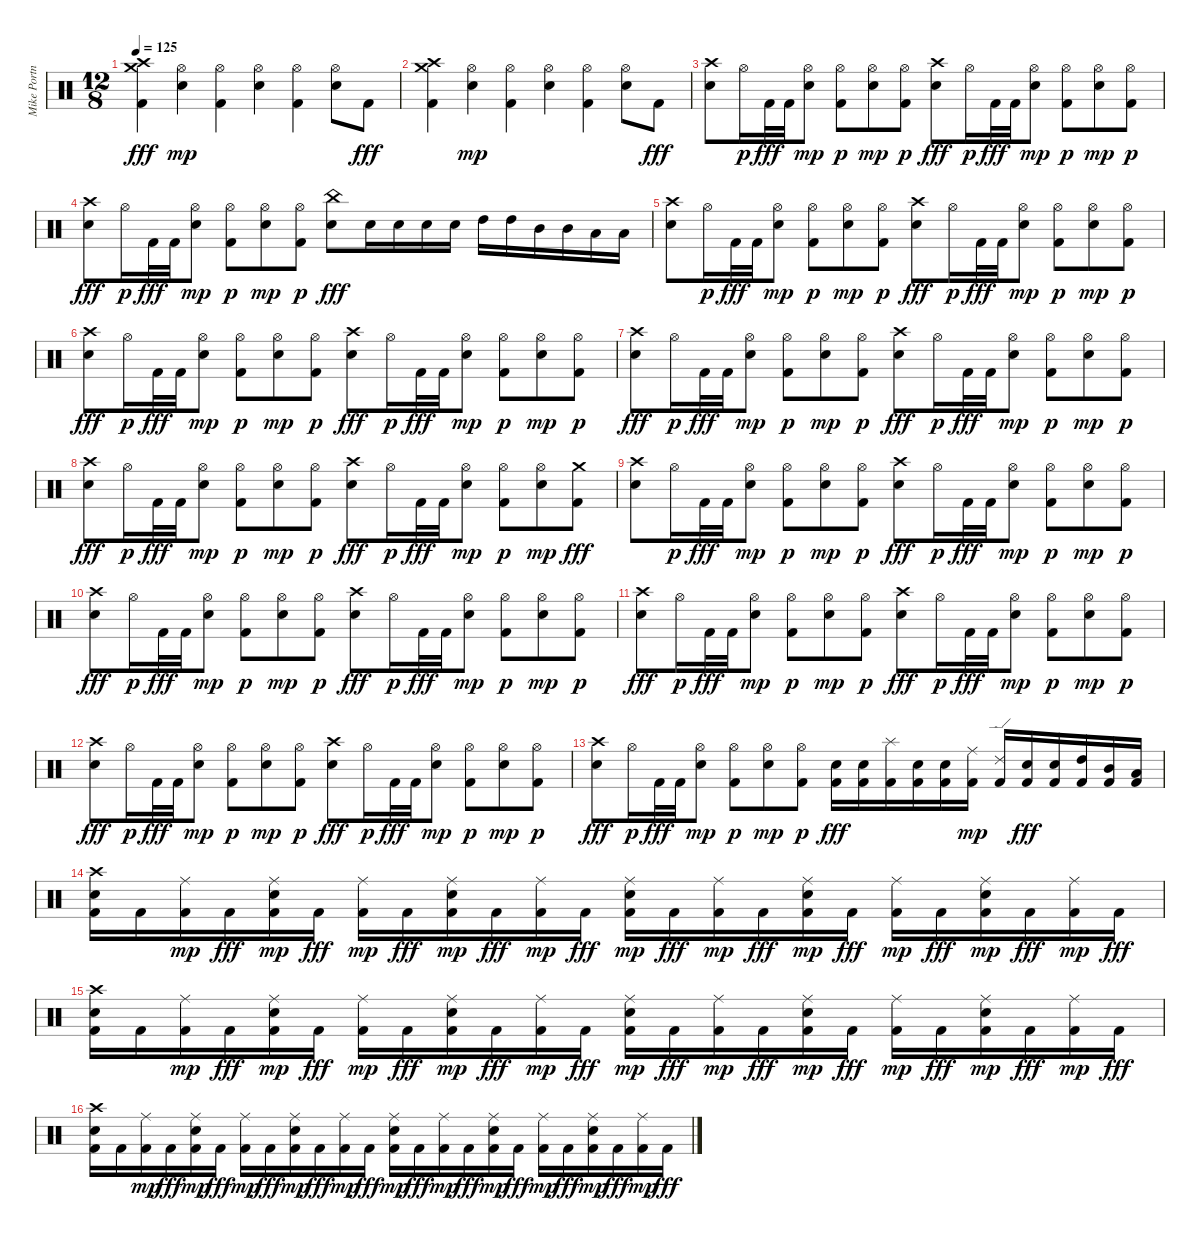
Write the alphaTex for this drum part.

\track ("Mike Portnoy" "Mike Portn") {instrument percussion}
\staff {score}
\articulation defaults
\ts (12 8)
\tempo 125
\clef neutral
\ks c
("Kick (hit) 2" "Crash high (hit)" "Crash medium (hit)").4{dy fff} ("Electric Snare (hit)" "Hi-Hat (open)").4{dy mp} ("Kick (hit) 2" "Hi-Hat (open)").4 ("Electric Snare (hit)" "Hi-Hat (open)").4 ("Kick (hit) 2" "Hi-Hat (open)").4 ("Electric Snare (hit)" "Hi-Hat (open)").8 "Kick (hit) 2".8{dy fff} |
("Kick (hit) 2" "Crash high (hit)" "Crash medium (hit)").4 ("Electric Snare (hit)" "Hi-Hat (open)").4{dy mp} ("Kick (hit) 2" "Hi-Hat (open)").4 ("Electric Snare (hit)" "Hi-Hat (open)").4 ("Kick (hit) 2" "Hi-Hat (open)").4 ("Electric Snare (hit)" "Hi-Hat (open)").8 "Kick (hit) 2".8{dy fff} |
("Electric Snare (hit)" "Crash high (hit)").8 "Hi-Hat (open)".16{dy p} "Kick (hit) 2".32{dy fff} "Kick (hit) 2".32 ("Electric Snare (hit)" "Hi-Hat (open)").8{dy mp} ("Kick (hit) 2" "Hi-Hat (open)").8{dy p} ("Electric Snare (hit)" "Hi-Hat (open)").8{dy mp} ("Kick (hit) 2" "Hi-Hat (open)").8{dy p} ("Electric Snare (hit)" "Crash high (hit)").8{dy fff} "Hi-Hat (open)".16{dy p} "Kick (hit) 2".32{dy fff} "Kick (hit) 2".32 ("Electric Snare (hit)" "Hi-Hat (open)").8{dy mp} ("Kick (hit) 2" "Hi-Hat (open)").8{dy p} ("Electric Snare (hit)" "Hi-Hat (open)").8{dy mp} ("Kick (hit) 2" "Hi-Hat (open)").8{dy p} |
("Electric Snare (hit)" "Crash high (hit)").8{dy fff} "Hi-Hat (open)".16{dy p} "Kick (hit) 2".32{dy fff} "Kick (hit) 2".32 ("Electric Snare (hit)" "Hi-Hat (open)").8{dy mp} ("Kick (hit) 2" "Hi-Hat (open)").8{dy p} ("Electric Snare (hit)" "Hi-Hat (open)").8{dy mp} ("Kick (hit) 2" "Hi-Hat (open)").8{dy p} ("Electric Snare (hit)" "China (hit)").8{dy fff} "Electric Snare (hit)".16 "Electric Snare (hit)".16 "Electric Snare (hit)".16 "Electric Snare (hit)".16 "High Tom (hit)".16 "High Tom (hit)".16 "Mid Tom (hit)".16 "Mid Tom (hit)".16 "Low Tom (hit)".16 "Low Tom (hit)".16 |
("Electric Snare (hit)" "Crash high (hit)").8 "Hi-Hat (open)".16{dy p} "Kick (hit) 2".32{dy fff} "Kick (hit) 2".32 ("Electric Snare (hit)" "Hi-Hat (open)").8{dy mp} ("Kick (hit) 2" "Hi-Hat (open)").8{dy p} ("Electric Snare (hit)" "Hi-Hat (open)").8{dy mp} ("Kick (hit) 2" "Hi-Hat (open)").8{dy p} ("Electric Snare (hit)" "Crash high (hit)").8{dy fff} "Hi-Hat (open)".16{dy p} "Kick (hit) 2".32{dy fff} "Kick (hit) 2".32 ("Electric Snare (hit)" "Hi-Hat (open)").8{dy mp} ("Kick (hit) 2" "Hi-Hat (open)").8{dy p} ("Electric Snare (hit)" "Hi-Hat (open)").8{dy mp} ("Kick (hit) 2" "Hi-Hat (open)").8{dy p} |
("Electric Snare (hit)" "Crash high (hit)").8{dy fff} "Hi-Hat (open)".16{dy p} "Kick (hit) 2".32{dy fff} "Kick (hit) 2".32 ("Electric Snare (hit)" "Hi-Hat (open)").8{dy mp} ("Kick (hit) 2" "Hi-Hat (open)").8{dy p} ("Electric Snare (hit)" "Hi-Hat (open)").8{dy mp} ("Kick (hit) 2" "Hi-Hat (open)").8{dy p} ("Electric Snare (hit)" "Crash high (hit)").8{dy fff} "Hi-Hat (open)".16{dy p} "Kick (hit) 2".32{dy fff} "Kick (hit) 2".32 ("Electric Snare (hit)" "Hi-Hat (open)").8{dy mp} ("Kick (hit) 2" "Hi-Hat (open)").8{dy p} ("Electric Snare (hit)" "Hi-Hat (open)").8{dy mp} ("Kick (hit) 2" "Hi-Hat (open)").8{dy p} |
("Electric Snare (hit)" "Crash high (hit)").8{dy fff} "Hi-Hat (open)".16{dy p} "Kick (hit) 2".32{dy fff} "Kick (hit) 2".32 ("Electric Snare (hit)" "Hi-Hat (open)").8{dy mp} ("Kick (hit) 2" "Hi-Hat (open)").8{dy p} ("Electric Snare (hit)" "Hi-Hat (open)").8{dy mp} ("Kick (hit) 2" "Hi-Hat (open)").8{dy p} ("Electric Snare (hit)" "Crash high (hit)").8{dy fff} "Hi-Hat (open)".16{dy p} "Kick (hit) 2".32{dy fff} "Kick (hit) 2".32 ("Electric Snare (hit)" "Hi-Hat (open)").8{dy mp} ("Kick (hit) 2" "Hi-Hat (open)").8{dy p} ("Electric Snare (hit)" "Hi-Hat (open)").8{dy mp} ("Kick (hit) 2" "Hi-Hat (open)").8{dy p} |
("Electric Snare (hit)" "Crash high (hit)").8{dy fff} "Hi-Hat (open)".16{dy p} "Kick (hit) 2".32{dy fff} "Kick (hit) 2".32 ("Electric Snare (hit)" "Hi-Hat (open)").8{dy mp} ("Kick (hit) 2" "Hi-Hat (open)").8{dy p} ("Electric Snare (hit)" "Hi-Hat (open)").8{dy mp} ("Kick (hit) 2" "Hi-Hat (open)").8{dy p} ("Electric Snare (hit)" "Crash high (hit)").8{dy fff} "Hi-Hat (open)".16{dy p} "Kick (hit) 2".32{dy fff} "Kick (hit) 2".32 ("Electric Snare (hit)" "Hi-Hat (open)").8{dy mp} ("Kick (hit) 2" "Hi-Hat (open)").8{dy p} ("Electric Snare (hit)" "Hi-Hat (open)").8{dy mp} ("Kick (hit) 2" "Crash medium (hit)").8{dy fff} |
("Electric Snare (hit)" "Crash high (hit)").8 "Hi-Hat (open)".16{dy p} "Kick (hit) 2".32{dy fff} "Kick (hit) 2".32 ("Electric Snare (hit)" "Hi-Hat (open)").8{dy mp} ("Kick (hit) 2" "Hi-Hat (open)").8{dy p} ("Electric Snare (hit)" "Hi-Hat (open)").8{dy mp} ("Kick (hit) 2" "Hi-Hat (open)").8{dy p} ("Electric Snare (hit)" "Crash high (hit)").8{dy fff} "Hi-Hat (open)".16{dy p} "Kick (hit) 2".32{dy fff} "Kick (hit) 2".32 ("Electric Snare (hit)" "Hi-Hat (open)").8{dy mp} ("Kick (hit) 2" "Hi-Hat (open)").8{dy p} ("Electric Snare (hit)" "Hi-Hat (open)").8{dy mp} ("Kick (hit) 2" "Hi-Hat (open)").8{dy p} |
("Electric Snare (hit)" "Crash high (hit)").8{dy fff} "Hi-Hat (open)".16{dy p} "Kick (hit) 2".32{dy fff} "Kick (hit) 2".32 ("Electric Snare (hit)" "Hi-Hat (open)").8{dy mp} ("Kick (hit) 2" "Hi-Hat (open)").8{dy p} ("Electric Snare (hit)" "Hi-Hat (open)").8{dy mp} ("Kick (hit) 2" "Hi-Hat (open)").8{dy p} ("Electric Snare (hit)" "Crash high (hit)").8{dy fff} "Hi-Hat (open)".16{dy p} "Kick (hit) 2".32{dy fff} "Kick (hit) 2".32 ("Electric Snare (hit)" "Hi-Hat (open)").8{dy mp} ("Kick (hit) 2" "Hi-Hat (open)").8{dy p} ("Electric Snare (hit)" "Hi-Hat (open)").8{dy mp} ("Kick (hit) 2" "Hi-Hat (open)").8{dy p} |
("Electric Snare (hit)" "Crash high (hit)").8{dy fff} "Hi-Hat (open)".16{dy p} "Kick (hit) 2".32{dy fff} "Kick (hit) 2".32 ("Electric Snare (hit)" "Hi-Hat (open)").8{dy mp} ("Kick (hit) 2" "Hi-Hat (open)").8{dy p} ("Electric Snare (hit)" "Hi-Hat (open)").8{dy mp} ("Kick (hit) 2" "Hi-Hat (open)").8{dy p} ("Electric Snare (hit)" "Crash high (hit)").8{dy fff} "Hi-Hat (open)".16{dy p} "Kick (hit) 2".32{dy fff} "Kick (hit) 2".32 ("Electric Snare (hit)" "Hi-Hat (open)").8{dy mp} ("Kick (hit) 2" "Hi-Hat (open)").8{dy p} ("Electric Snare (hit)" "Hi-Hat (open)").8{dy mp} ("Kick (hit) 2" "Hi-Hat (open)").8{dy p} |
("Electric Snare (hit)" "Crash high (hit)").8{dy fff} "Hi-Hat (open)".16{dy p} "Kick (hit) 2".32{dy fff} "Kick (hit) 2".32 ("Electric Snare (hit)" "Hi-Hat (open)").8{dy mp} ("Kick (hit) 2" "Hi-Hat (open)").8{dy p} ("Electric Snare (hit)" "Hi-Hat (open)").8{dy mp} ("Kick (hit) 2" "Hi-Hat (open)").8{dy p} ("Electric Snare (hit)" "Crash high (hit)").8{dy fff} "Hi-Hat (open)".16{dy p} "Kick (hit) 2".32{dy fff} "Kick (hit) 2".32 ("Electric Snare (hit)" "Hi-Hat (open)").8{dy mp} ("Kick (hit) 2" "Hi-Hat (open)").8{dy p} ("Electric Snare (hit)" "Hi-Hat (open)").8{dy mp} ("Kick (hit) 2" "Hi-Hat (open)").8{dy p} |
("Electric Snare (hit)" "Crash high (hit)").8{dy fff} "Hi-Hat (open)".16{dy p} "Kick (hit) 2".32{dy fff} "Kick (hit) 2".32 ("Electric Snare (hit)" "Hi-Hat (open)").8{dy mp} ("Kick (hit) 2" "Hi-Hat (open)").8{dy p} ("Electric Snare (hit)" "Hi-Hat (open)").8{dy mp} ("Kick (hit) 2" "Hi-Hat (open)").8{dy p} ("Kick (hit) 2" "Electric Snare (hit)").16{dy fff} ("Kick (hit) 2" "Electric Snare (hit)").16 ("Kick (hit) 2" "Splash (hit)").16 ("Kick (hit) 2" "Electric Snare (hit)").16 ("Kick (hit) 2" "Electric Snare (hit)").16 ("Kick (hit) 2" "Ride (middle)").16{dy mp} ("Kick (hit) 2" "Ride (edge) 2").16 ("Kick (hit) 2" "Electric Snare (hit)").16{dy fff} ("Kick (hit) 2" "Electric Snare (hit)").16 ("Kick (hit) 2" "High Tom (hit)").16 ("Kick (hit) 2" "Mid Tom (hit)").16 ("Kick (hit) 2" "Low Tom (hit)").16 |
("Kick (hit) 2" "Electric Snare (hit)" "Crash high (hit)").16 "Kick (hit) 2".16 ("Kick (hit) 2" "Ride (middle)").16{dy mp} "Kick (hit) 2".16{dy fff} ("Kick (hit) 2" "Electric Snare (hit)" "Ride (middle)").16{dy mp} "Kick (hit) 2".16{dy fff} ("Kick (hit) 2" "Ride (middle)").16{dy mp} "Kick (hit) 2".16{dy fff} ("Kick (hit) 2" "Electric Snare (hit)" "Ride (middle)").16{dy mp} "Kick (hit) 2".16{dy fff} ("Kick (hit) 2" "Ride (middle)").16{dy mp} "Kick (hit) 2".16{dy fff} ("Kick (hit) 2" "Electric Snare (hit)" "Ride (middle)").16{dy mp} "Kick (hit) 2".16{dy fff} ("Kick (hit) 2" "Ride (middle)").16{dy mp} "Kick (hit) 2".16{dy fff} ("Kick (hit) 2" "Electric Snare (hit)" "Ride (middle)").16{dy mp} "Kick (hit) 2".16{dy fff} ("Kick (hit) 2" "Ride (middle)").16{dy mp} "Kick (hit) 2".16{dy fff} ("Kick (hit) 2" "Electric Snare (hit)" "Ride (middle)").16{dy mp} "Kick (hit) 2".16{dy fff} ("Kick (hit) 2" "Ride (middle)").16{dy mp} "Kick (hit) 2".16{dy fff} |
("Kick (hit) 2" "Electric Snare (hit)" "Crash high (hit)").16 "Kick (hit) 2".16 ("Kick (hit) 2" "Ride (middle)").16{dy mp} "Kick (hit) 2".16{dy fff} ("Kick (hit) 2" "Electric Snare (hit)" "Ride (middle)").16{dy mp} "Kick (hit) 2".16{dy fff} ("Kick (hit) 2" "Ride (middle)").16{dy mp} "Kick (hit) 2".16{dy fff} ("Kick (hit) 2" "Electric Snare (hit)" "Ride (middle)").16{dy mp} "Kick (hit) 2".16{dy fff} ("Kick (hit) 2" "Ride (middle)").16{dy mp} "Kick (hit) 2".16{dy fff} ("Kick (hit) 2" "Electric Snare (hit)" "Ride (middle)").16{dy mp} "Kick (hit) 2".16{dy fff} ("Kick (hit) 2" "Ride (middle)").16{dy mp} "Kick (hit) 2".16{dy fff} ("Kick (hit) 2" "Electric Snare (hit)" "Ride (middle)").16{dy mp} "Kick (hit) 2".16{dy fff} ("Kick (hit) 2" "Ride (middle)").16{dy mp} "Kick (hit) 2".16{dy fff} ("Kick (hit) 2" "Electric Snare (hit)" "Ride (middle)").16{dy mp} "Kick (hit) 2".16{dy fff} ("Kick (hit) 2" "Ride (middle)").16{dy mp} "Kick (hit) 2".16{dy fff} |
("Kick (hit) 2" "Electric Snare (hit)" "Crash high (hit)").16 "Kick (hit) 2".16 ("Kick (hit) 2" "Ride (middle)").16{dy mp} "Kick (hit) 2".16{dy fff} ("Kick (hit) 2" "Electric Snare (hit)" "Ride (middle)").16{dy mp} "Kick (hit) 2".16{dy fff} ("Kick (hit) 2" "Ride (middle)").16{dy mp} "Kick (hit) 2".16{dy fff} ("Kick (hit) 2" "Electric Snare (hit)" "Ride (middle)").16{dy mp} "Kick (hit) 2".16{dy fff} ("Kick (hit) 2" "Ride (middle)").16{dy mp} "Kick (hit) 2".16{dy fff} ("Kick (hit) 2" "Electric Snare (hit)" "Ride (middle)").16{dy mp} "Kick (hit) 2".16{dy fff} ("Kick (hit) 2" "Ride (middle)").16{dy mp} "Kick (hit) 2".16{dy fff} ("Kick (hit) 2" "Electric Snare (hit)" "Ride (middle)").16{dy mp} "Kick (hit) 2".16{dy fff} ("Kick (hit) 2" "Ride (middle)").16{dy mp} "Kick (hit) 2".16{dy fff} ("Kick (hit) 2" "Electric Snare (hit)" "Ride (middle)").16{dy mp} "Kick (hit) 2".16{dy fff} ("Kick (hit) 2" "Ride (middle)").16{dy mp} "Kick (hit) 2".16{dy fff}
